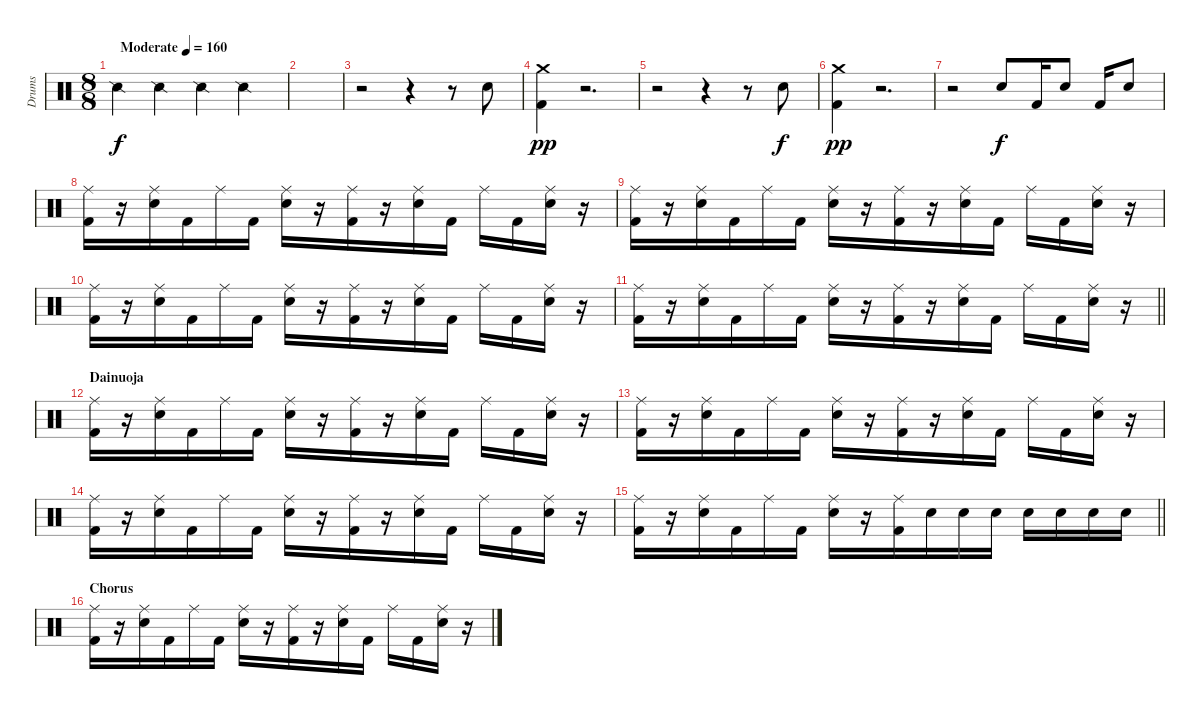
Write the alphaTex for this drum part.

\track ("Drums" "Drums") {instrument percussion}
\staff {score}
\articulation defaults
\ts (8 8)
\tempo (160 "Moderate")
\clef neutral
\ks c "Snare (side stick) 2".4{dy f} "Snare (side stick) 2".4 "Snare (side stick) 2".4 "Snare (side stick) 2".4
|
|
r.2 r.4 r.8 "Snare (hit) 2".8 |
("Crash medium (hit)" "Kick (hit) 2").4{dy pp} r.2{d} |
r.2 r.4 r.8 "Snare (hit) 2".8{dy f} |
("Crash medium (hit)" "Kick (hit) 2").4{dy pp} r.2{d} |
r.2 "Snare (hit) 2".8{dy f} "Kick (hit) 2".16 "Snare (hit) 2".8 "Kick (hit) 2".16 "Snare (hit) 2".8 |
("Ride (middle)" "Kick (hit) 2").16 r.16 ("Ride (middle)" "Snare (hit) 2").16 "Kick (hit) 2".16 "Ride (middle)".16 "Kick (hit) 2".16 ("Ride (middle)" "Snare (hit) 2").16 r.16 ("Ride (middle)" "Kick (hit) 2").16 r.16 ("Ride (middle)" "Snare (hit) 2").16 "Kick (hit) 2".16 "Ride (middle)".16 "Kick (hit) 2".16 ("Ride (middle)" "Snare (hit) 2").16 r.16 |
("Ride (middle)" "Kick (hit) 2").16 r.16 ("Ride (middle)" "Snare (hit) 2").16 "Kick (hit) 2".16 "Ride (middle)".16 "Kick (hit) 2".16 ("Ride (middle)" "Snare (hit) 2").16 r.16 ("Ride (middle)" "Kick (hit) 2").16 r.16 ("Ride (middle)" "Snare (hit) 2").16 "Kick (hit) 2".16 "Ride (middle)".16 "Kick (hit) 2".16 ("Ride (middle)" "Snare (hit) 2").16 r.16 |
("Ride (middle)" "Kick (hit) 2").16 r.16 ("Ride (middle)" "Snare (hit) 2").16 "Kick (hit) 2".16 "Ride (middle)".16 "Kick (hit) 2".16 ("Ride (middle)" "Snare (hit) 2").16 r.16 ("Ride (middle)" "Kick (hit) 2").16 r.16 ("Ride (middle)" "Snare (hit) 2").16 "Kick (hit) 2".16 "Ride (middle)".16 "Kick (hit) 2".16 ("Ride (middle)" "Snare (hit) 2").16 r.16 |
\barLineRight lightlight
("Ride (middle)" "Kick (hit) 2").16 r.16 ("Ride (middle)" "Snare (hit) 2").16 "Kick (hit) 2".16 "Ride (middle)".16 "Kick (hit) 2".16 ("Ride (middle)" "Snare (hit) 2").16 r.16 ("Ride (middle)" "Kick (hit) 2").16 r.16 ("Ride (middle)" "Snare (hit) 2").16 "Kick (hit) 2".16 "Ride (middle)".16 "Kick (hit) 2".16 ("Ride (middle)" "Snare (hit) 2").16 r.16 |
\section ("" "Dainuoja")
("Ride (middle)" "Kick (hit) 2").16 r.16 ("Ride (middle)" "Snare (hit) 2").16 "Kick (hit) 2".16 "Ride (middle)".16 "Kick (hit) 2".16 ("Ride (middle)" "Snare (hit) 2").16 r.16 ("Ride (middle)" "Kick (hit) 2").16 r.16 ("Ride (middle)" "Snare (hit) 2").16 "Kick (hit) 2".16 "Ride (middle)".16 "Kick (hit) 2".16 ("Ride (middle)" "Snare (hit) 2").16 r.16 |
("Ride (middle)" "Kick (hit) 2").16 r.16 ("Ride (middle)" "Snare (hit) 2").16 "Kick (hit) 2".16 "Ride (middle)".16 "Kick (hit) 2".16 ("Ride (middle)" "Snare (hit) 2").16 r.16 ("Ride (middle)" "Kick (hit) 2").16 r.16 ("Ride (middle)" "Snare (hit) 2").16 "Kick (hit) 2".16 "Ride (middle)".16 "Kick (hit) 2".16 ("Ride (middle)" "Snare (hit) 2").16 r.16 |
("Ride (middle)" "Kick (hit) 2").16 r.16 ("Ride (middle)" "Snare (hit) 2").16 "Kick (hit) 2".16 "Ride (middle)".16 "Kick (hit) 2".16 ("Ride (middle)" "Snare (hit) 2").16 r.16 ("Ride (middle)" "Kick (hit) 2").16 r.16 ("Ride (middle)" "Snare (hit) 2").16 "Kick (hit) 2".16 "Ride (middle)".16 "Kick (hit) 2".16 ("Ride (middle)" "Snare (hit) 2").16 r.16 |
\barLineRight lightlight
("Ride (middle)" "Kick (hit) 2").16 r.16 ("Ride (middle)" "Snare (hit) 2").16 "Kick (hit) 2".16 "Ride (middle)".16 "Kick (hit) 2".16 ("Ride (middle)" "Snare (hit) 2").16 r.16 ("Ride (middle)" "Kick (hit) 2").16 "Snare (hit) 2".16 "Snare (hit) 2".16 "Snare (hit) 2".16 "Snare (hit) 2".16 "Snare (hit) 2".16 "Snare (hit) 2".16 "Snare (hit) 2".16 |
\section ("" "Chorus")
("Ride (middle)" "Kick (hit) 2").16 r.16 ("Ride (middle)" "Snare (hit) 2").16 "Kick (hit) 2".16 "Ride (middle)".16 "Kick (hit) 2".16 ("Ride (middle)" "Snare (hit) 2").16 r.16 ("Ride (middle)" "Kick (hit) 2").16 r.16 ("Ride (middle)" "Snare (hit) 2").16 "Kick (hit) 2".16 "Ride (middle)".16 "Kick (hit) 2".16 ("Ride (middle)" "Snare (hit) 2").16 r.16
